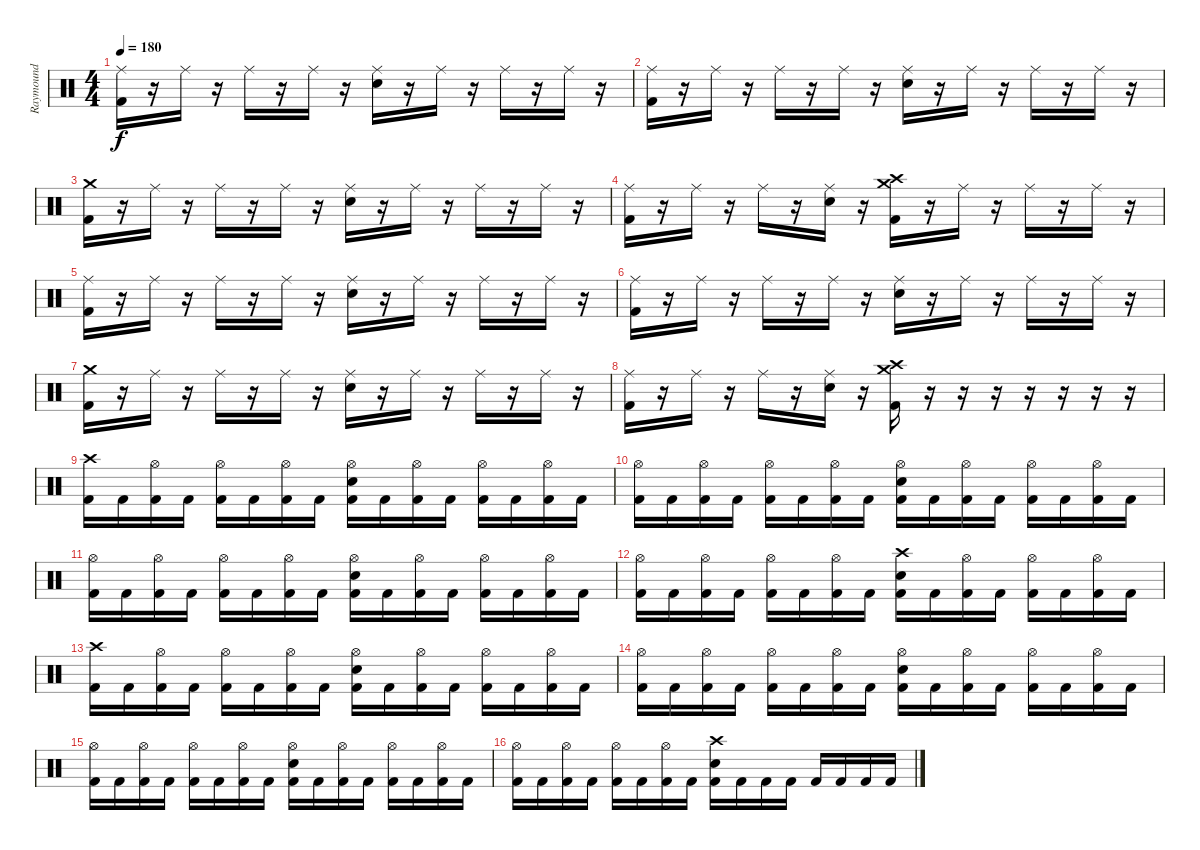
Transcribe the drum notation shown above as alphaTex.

\track ("Raymound " "Raymound ") {instrument percussion}
\staff {score}
\articulation defaults
\ts (4 4)
\tempo 180
\clef neutral
\ks c
("Ride (middle)" "Kick (hit) 2").16{dy f} r.16 "Ride (middle)".16 r.16 "Ride (middle)".16 r.16 "Ride (middle)".16 r.16 ("Ride (middle)" "Electric Snare (hit)").16 r.16 "Ride (middle)".16 r.16 "Ride (middle)".16 r.16 "Ride (middle)".16 r.16 |
("Ride (middle)" "Kick (hit) 2").16 r.16 "Ride (middle)".16 r.16 "Ride (middle)".16 r.16 "Ride (middle)".16 r.16 ("Ride (middle)" "Electric Snare (hit)").16 r.16 "Ride (middle)".16 r.16 "Ride (middle)".16 r.16 "Ride (middle)".16 r.16 |
("Crash medium (hit)" "Kick (hit) 2").16 r.16 "Ride (middle)".16 r.16 "Ride (middle)".16 r.16 "Ride (middle)".16 r.16 ("Ride (middle)" "Electric Snare (hit)").16 r.16 "Ride (middle)".16 r.16 "Ride (middle)".16 r.16 "Ride (middle)".16 r.16 |
("Ride (middle)" "Kick (hit) 2").16 r.16 "Ride (middle)".16 r.16 "Ride (middle)".16 r.16 ("Ride (middle)" "Electric Snare (hit)").16 r.16 ("Crash high (hit)" "Crash medium (hit)" "Kick (hit) 2").16 r.16 "Ride (middle)".16 r.16 "Ride (middle)".16 r.16 "Ride (middle)".16 r.16 |
("Ride (middle)" "Kick (hit) 2").16 r.16 "Ride (middle)".16 r.16 "Ride (middle)".16 r.16 "Ride (middle)".16 r.16 ("Ride (middle)" "Electric Snare (hit)").16 r.16 "Ride (middle)".16 r.16 "Ride (middle)".16 r.16 "Ride (middle)".16 r.16 |
("Ride (middle)" "Kick (hit) 2").16 r.16 "Ride (middle)".16 r.16 "Ride (middle)".16 r.16 "Ride (middle)".16 r.16 ("Ride (middle)" "Electric Snare (hit)").16 r.16 "Ride (middle)".16 r.16 "Ride (middle)".16 r.16 "Ride (middle)".16 r.16 |
("Crash medium (hit)" "Kick (hit) 2").16 r.16 "Ride (middle)".16 r.16 "Ride (middle)".16 r.16 "Ride (middle)".16 r.16 ("Ride (middle)" "Electric Snare (hit)").16 r.16 "Ride (middle)".16 r.16 "Ride (middle)".16 r.16 "Ride (middle)".16 r.16 |
("Ride (middle)" "Kick (hit) 2").16 r.16 "Ride (middle)".16 r.16 "Ride (middle)".16 r.16 ("Ride (middle)" "Electric Snare (hit)").16 r.16 ("Crash high (hit)" "Crash medium (hit)" "Kick (hit) 2").16 r.16 r.16 r.16 r.16 r.16 r.16 r.16 |
("Crash high (hit)" "Kick (hit) 2").16 "Kick (hit) 2".16 ("Hi-Hat (open)" "Kick (hit) 2").16 "Kick (hit) 2".16 ("Hi-Hat (open)" "Kick (hit) 2").16 "Kick (hit) 2".16 ("Hi-Hat (open)" "Kick (hit) 2").16 "Kick (hit) 2".16 ("Hi-Hat (open)" "Electric Snare (hit)" "Kick (hit) 2").16 "Kick (hit) 2".16 ("Hi-Hat (open)" "Kick (hit) 2").16 "Kick (hit) 2".16 ("Hi-Hat (open)" "Kick (hit) 2").16 "Kick (hit) 2".16 ("Hi-Hat (open)" "Kick (hit) 2").16 "Kick (hit) 2".16 |
("Hi-Hat (open)" "Kick (hit) 2").16 "Kick (hit) 2".16 ("Hi-Hat (open)" "Kick (hit) 2").16 "Kick (hit) 2".16 ("Hi-Hat (open)" "Kick (hit) 2").16 "Kick (hit) 2".16 ("Hi-Hat (open)" "Kick (hit) 2").16 "Kick (hit) 2".16 ("Hi-Hat (open)" "Electric Snare (hit)" "Kick (hit) 2").16 "Kick (hit) 2".16 ("Hi-Hat (open)" "Kick (hit) 2").16 "Kick (hit) 2".16 ("Hi-Hat (open)" "Kick (hit) 2").16 "Kick (hit) 2".16 ("Hi-Hat (open)" "Kick (hit) 2").16 "Kick (hit) 2".16 |
("Hi-Hat (open)" "Kick (hit) 2").16 "Kick (hit) 2".16 ("Hi-Hat (open)" "Kick (hit) 2").16 "Kick (hit) 2".16 ("Hi-Hat (open)" "Kick (hit) 2").16 "Kick (hit) 2".16 ("Hi-Hat (open)" "Kick (hit) 2").16 "Kick (hit) 2".16 ("Hi-Hat (open)" "Electric Snare (hit)" "Kick (hit) 2").16 "Kick (hit) 2".16 ("Hi-Hat (open)" "Kick (hit) 2").16 "Kick (hit) 2".16 ("Hi-Hat (open)" "Kick (hit) 2").16 "Kick (hit) 2".16 ("Hi-Hat (open)" "Kick (hit) 2").16 "Kick (hit) 2".16 |
("Hi-Hat (open)" "Kick (hit) 2").16 "Kick (hit) 2".16 ("Hi-Hat (open)" "Kick (hit) 2").16 "Kick (hit) 2".16 ("Hi-Hat (open)" "Kick (hit) 2").16 "Kick (hit) 2".16 ("Hi-Hat (open)" "Kick (hit) 2").16 "Kick (hit) 2".16 ("Crash high (hit)" "Electric Snare (hit)" "Kick (hit) 2").16 "Kick (hit) 2".16 ("Hi-Hat (open)" "Kick (hit) 2").16 "Kick (hit) 2".16 ("Hi-Hat (open)" "Kick (hit) 2").16 "Kick (hit) 2".16 ("Hi-Hat (open)" "Kick (hit) 2").16 "Kick (hit) 2".16 |
("Crash high (hit)" "Kick (hit) 2").16 "Kick (hit) 2".16 ("Hi-Hat (open)" "Kick (hit) 2").16 "Kick (hit) 2".16 ("Hi-Hat (open)" "Kick (hit) 2").16 "Kick (hit) 2".16 ("Hi-Hat (open)" "Kick (hit) 2").16 "Kick (hit) 2".16 ("Hi-Hat (open)" "Electric Snare (hit)" "Kick (hit) 2").16 "Kick (hit) 2".16 ("Hi-Hat (open)" "Kick (hit) 2").16 "Kick (hit) 2".16 ("Hi-Hat (open)" "Kick (hit) 2").16 "Kick (hit) 2".16 ("Hi-Hat (open)" "Kick (hit) 2").16 "Kick (hit) 2".16 |
("Hi-Hat (open)" "Kick (hit) 2").16 "Kick (hit) 2".16 ("Hi-Hat (open)" "Kick (hit) 2").16 "Kick (hit) 2".16 ("Hi-Hat (open)" "Kick (hit) 2").16 "Kick (hit) 2".16 ("Hi-Hat (open)" "Kick (hit) 2").16 "Kick (hit) 2".16 ("Hi-Hat (open)" "Electric Snare (hit)" "Kick (hit) 2").16 "Kick (hit) 2".16 ("Hi-Hat (open)" "Kick (hit) 2").16 "Kick (hit) 2".16 ("Hi-Hat (open)" "Kick (hit) 2").16 "Kick (hit) 2".16 ("Hi-Hat (open)" "Kick (hit) 2").16 "Kick (hit) 2".16 |
("Hi-Hat (open)" "Kick (hit) 2").16 "Kick (hit) 2".16 ("Hi-Hat (open)" "Kick (hit) 2").16 "Kick (hit) 2".16 ("Hi-Hat (open)" "Kick (hit) 2").16 "Kick (hit) 2".16 ("Hi-Hat (open)" "Kick (hit) 2").16 "Kick (hit) 2".16 ("Hi-Hat (open)" "Electric Snare (hit)" "Kick (hit) 2").16 "Kick (hit) 2".16 ("Hi-Hat (open)" "Kick (hit) 2").16 "Kick (hit) 2".16 ("Hi-Hat (open)" "Kick (hit) 2").16 "Kick (hit) 2".16 ("Hi-Hat (open)" "Kick (hit) 2").16 "Kick (hit) 2".16 |
("Hi-Hat (open)" "Kick (hit) 2").16 "Kick (hit) 2".16 ("Hi-Hat (open)" "Kick (hit) 2").16 "Kick (hit) 2".16 ("Hi-Hat (open)" "Kick (hit) 2").16 "Kick (hit) 2".16 ("Hi-Hat (open)" "Kick (hit) 2").16 "Kick (hit) 2".16 ("Crash high (hit)" "Electric Snare (hit)" "Kick (hit) 2").16 "Kick (hit) 2".16 "Kick (hit) 2".16 "Kick (hit) 2".16 "Kick (hit) 2".16 "Kick (hit) 2".16 "Kick (hit) 2".16 "Kick (hit) 2".16
